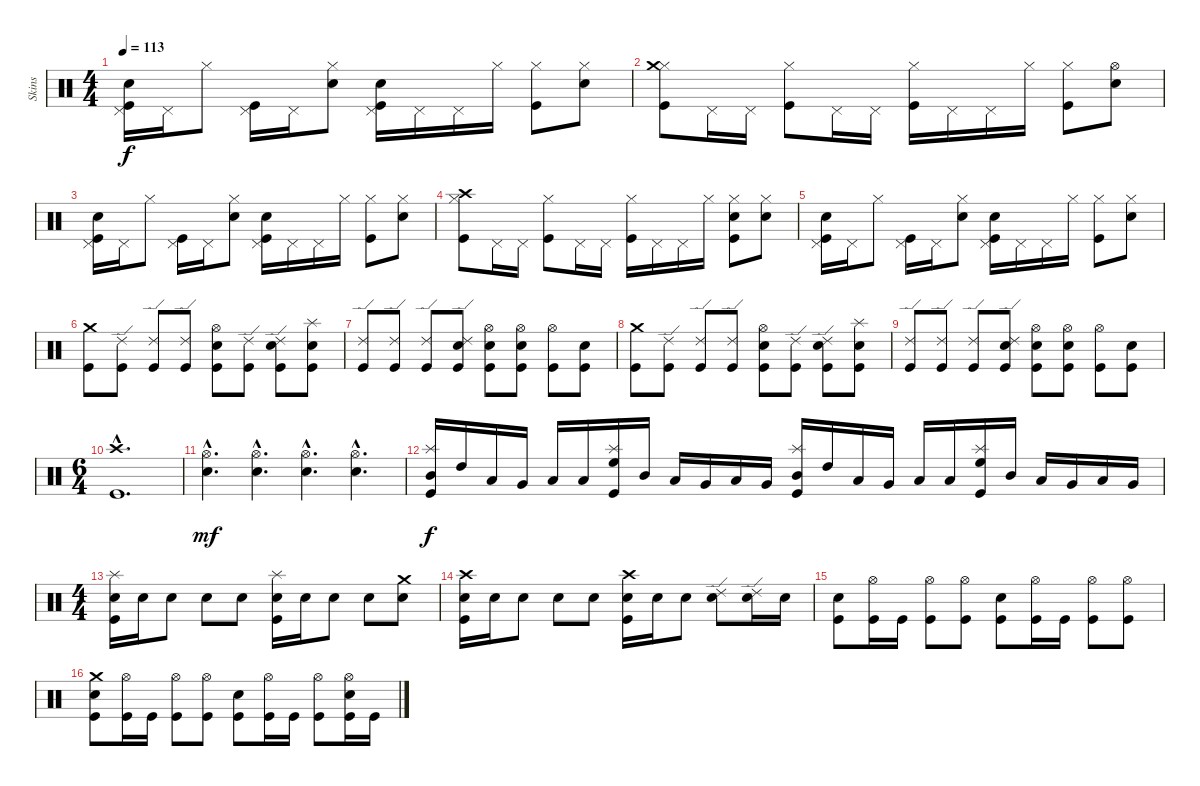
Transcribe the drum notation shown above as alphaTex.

\track ("Skins" "Skins") {instrument percussion}
\staff {score}
\articulation defaults
\ts (4 4)
\tempo 113
\clef neutral
\ks c
("Pedal Hi-Hat (hit)" "Snare (hit) 2" "Kick (hit)").16{dy f} "Pedal Hi-Hat (hit)".16 "Hi-Hat (closed)".8 ("Pedal Hi-Hat (hit)" "Kick (hit)").16 "Pedal Hi-Hat (hit)".16 ("Hi-Hat (closed)" "Snare (hit) 2").8 ("Pedal Hi-Hat (hit)" "Electric Snare (hit)" "Kick (hit)").16 "Pedal Hi-Hat (hit)".16 "Pedal Hi-Hat (hit)".16 "Hi-Hat (closed)".16 ("Hi-Hat (closed)" "Kick (hit)").8 ("Hi-Hat (closed)" "Snare (hit) 2").8 |
("Hi-Hat (closed)" "Crash medium (hit)" "Kick (hit)").8 "Pedal Hi-Hat (hit)".16 "Pedal Hi-Hat (hit)".16 ("Hi-Hat (closed)" "Kick (hit)").8 "Pedal Hi-Hat (hit)".16 "Pedal Hi-Hat (hit)".16 ("Hi-Hat (closed)" "Kick (hit)").16 "Pedal Hi-Hat (hit)".16 "Pedal Hi-Hat (hit)".16 "Hi-Hat (closed)".16 ("Hi-Hat (closed)" "Kick (hit)").8 ("Hi-Hat (open)" "Electric Snare (hit)").8 |
("Pedal Hi-Hat (hit)" "Snare (hit) 2" "Kick (hit)").16 "Pedal Hi-Hat (hit)".16 "Hi-Hat (closed)".8 ("Pedal Hi-Hat (hit)" "Kick (hit)").16 "Pedal Hi-Hat (hit)".16 ("Hi-Hat (closed)" "Snare (hit) 2").8 ("Pedal Hi-Hat (hit)" "Electric Snare (hit)" "Kick (hit)").16 "Pedal Hi-Hat (hit)".16 "Pedal Hi-Hat (hit)".16 "Hi-Hat (closed)".16 ("Hi-Hat (closed)" "Kick (hit)").8 ("Hi-Hat (closed)" "Snare (hit) 2").8 |
("Hi-Hat (closed)" "Crash high (hit)" "Kick (hit)").8 "Pedal Hi-Hat (hit)".16 "Pedal Hi-Hat (hit)".16 ("Hi-Hat (closed)" "Kick (hit)").8 "Pedal Hi-Hat (hit)".16 "Pedal Hi-Hat (hit)".16 ("Hi-Hat (closed)" "Kick (hit)").16 "Pedal Hi-Hat (hit)".16 "Pedal Hi-Hat (hit)".16 "Hi-Hat (closed)".16 ("Hi-Hat (closed)" "Electric Snare (hit)" "Kick (hit)").8 ("Hi-Hat (closed)" "Electric Snare (hit)").8 |
("Pedal Hi-Hat (hit)" "Snare (hit) 2" "Kick (hit)").16 "Pedal Hi-Hat (hit)".16 "Hi-Hat (closed)".8 ("Pedal Hi-Hat (hit)" "Kick (hit)").16 "Pedal Hi-Hat (hit)".16 ("Hi-Hat (closed)" "Snare (hit) 2").8 ("Pedal Hi-Hat (hit)" "Electric Snare (hit)" "Kick (hit)").16 "Pedal Hi-Hat (hit)".16 "Pedal Hi-Hat (hit)".16 "Hi-Hat (closed)".16 ("Hi-Hat (closed)" "Kick (hit)").8 ("Hi-Hat (closed)" "Snare (hit) 2").8 |
("Crash medium (hit)" "Kick (hit)").8 ("Ride (edge) 2" "Kick (hit)").8 ("Ride (edge) 2" "Kick (hit)").8 ("Ride (edge) 2" "Kick (hit)").8 ("Hi-Hat (open)" "Electric Snare (hit)" "Kick (hit)").8 ("Ride (edge) 2" "Kick (hit)").8 ("Ride (edge) 2" "Snare (hit) 2" "Kick (hit)").8 ("Splash (hit)" "Electric Snare (hit)" "Kick (hit)").8 |
("Ride (edge) 2" "Kick (hit)").8 ("Ride (edge) 2" "Kick (hit)").8 ("Ride (edge) 2" "Kick (hit)").8 ("Ride (edge) 2" "Snare (hit) 2" "Kick (hit)").8 ("Hi-Hat (open)" "Electric Snare (hit)" "Kick (hit)").8 ("Hi-Hat (open)" "Electric Snare (hit)" "Kick (hit)").8 ("Hi-Hat (open)" "Kick (hit)").8 ("Snare (hit) 2" "Kick (hit)").8 |
("Crash medium (hit)" "Kick (hit)").8 ("Ride (edge) 2" "Kick (hit)").8 ("Ride (edge) 2" "Kick (hit)").8 ("Ride (edge) 2" "Kick (hit)").8 ("Hi-Hat (open)" "Electric Snare (hit)" "Kick (hit)").8 ("Ride (edge) 2" "Kick (hit)").8 ("Ride (edge) 2" "Snare (hit) 2" "Kick (hit)").8 ("Splash (hit)" "Electric Snare (hit)" "Kick (hit)").8 |
("Ride (edge) 2" "Kick (hit)").8 ("Ride (edge) 2" "Kick (hit)").8 ("Ride (edge) 2" "Kick (hit)").8 ("Ride (edge) 2" "Snare (hit) 2" "Kick (hit)").8 ("Hi-Hat (open)" "Electric Snare (hit)" "Kick (hit)").8 ("Hi-Hat (open)" "Electric Snare (hit)" "Kick (hit)").8 ("Hi-Hat (open)" "Kick (hit)").8 ("Snare (hit) 2" "Kick (hit)").8 |
\ts (6 4)
("Crash high (hit)"{hac} "Kick (hit)"{hac}).1{d} |
("Hi-Hat (open)"{hac} "Electric Snare (hit)"{hac}).4{d dy mf} ("Hi-Hat (open)"{hac} "Electric Snare (hit)"{hac}).4{d} ("Hi-Hat (open)"{hac} "Electric Snare (hit)"{hac}).4{d} ("Hi-Hat (open)"{hac} "Electric Snare (hit)"{hac}).4{d} |
("Splash (hit)" "Mid Tom (hit)" "Kick (hit)").16{dy f} "High Tom (hit)".16 "Low Tom (hit)".16 "Very Low Tom (hit)".16 "Low Floor Tom (hit)".16 "Low Tom (hit)".16 ("Splash (hit)" "High Floor Tom (hit)" "Kick (hit)").16 "Mid Tom (hit)".16 "Low Tom (hit)".16 "Very Low Tom (hit)".16 "Low Floor Tom (hit)".16 "Very Low Tom (hit)".16 ("Splash (hit)" "Mid Tom (hit)" "Kick (hit)").16 "High Tom (hit)".16 "Low Tom (hit)".16 "Very Low Tom (hit)".16 "Low Floor Tom (hit)".16 "Low Tom (hit)".16 ("Splash (hit)" "High Floor Tom (hit)" "Kick (hit)").16 "Mid Tom (hit)".16 "Low Tom (hit)".16 "Very Low Tom (hit)".16 "Low Floor Tom (hit)".16 "Very Low Tom (hit)".16 |
\ts (4 4)
("Splash (hit)" "Snare (hit) 2" "Kick (hit)").16 "Snare (hit) 2".16 "Snare (hit) 2".8 "Snare (hit) 2".8 "Snare (hit) 2".8 ("Splash (hit)" "Snare (hit) 2" "Kick (hit)").16 "Snare (hit) 2".16 "Snare (hit) 2".8 "Snare (hit) 2".8 ("Crash medium (hit)" "Snare (hit) 2").8 |
("Crash high (hit)" "Snare (hit) 2" "Kick (hit)").16 "Snare (hit) 2".16 "Snare (hit) 2".8 "Snare (hit) 2".8 "Snare (hit) 2".8 ("Crash high (hit)" "Snare (hit) 2" "Kick (hit)").16 "Snare (hit) 2".16 "Snare (hit) 2".8 ("Ride (edge) 2" "Snare (hit) 2").8 ("Ride (edge) 2" "Snare (hit) 2").16 "Snare (hit) 2".16 |
("Electric Snare (hit)" "Kick (hit)").8 ("Hi-Hat (open)" "Kick (hit)").16 "Kick (hit)".16 ("Hi-Hat (open)" "Kick (hit)").8 ("Hi-Hat (open)" "Kick (hit)").8 ("Electric Snare (hit)" "Kick (hit)").8 ("Hi-Hat (open)" "Kick (hit)").16 "Kick (hit)".16 ("Hi-Hat (open)" "Kick (hit)").8 ("Hi-Hat (open)" "Kick (hit)").8 |
("Crash medium (hit)" "Electric Snare (hit)" "Kick (hit)").8 ("Hi-Hat (open)" "Kick (hit)").16 "Kick (hit)".16 ("Hi-Hat (open)" "Kick (hit)").8 ("Hi-Hat (open)" "Kick (hit)").8 ("Electric Snare (hit)" "Kick (hit)").8 ("Hi-Hat (open)" "Kick (hit)").16 "Kick (hit)".16 ("Hi-Hat (open)" "Kick (hit)").8 ("Hi-Hat (open)" "Electric Snare (hit)" "Kick (hit)").16 "Kick (hit)".16
